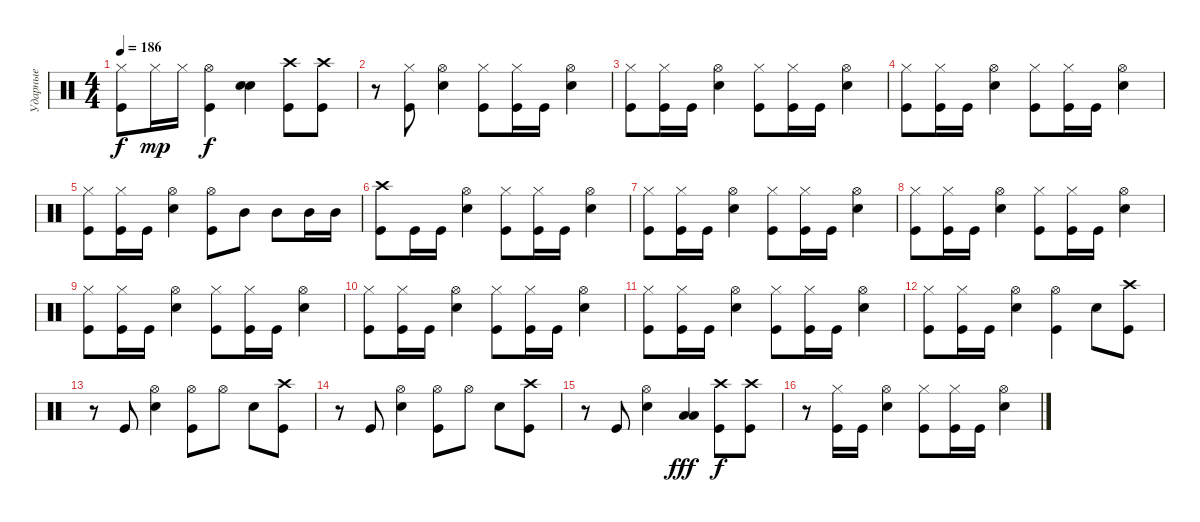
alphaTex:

\track ("Ударные" "Ударные") {instrument percussion}
\staff {score}
\articulation defaults
\ts (4 4)
\tempo 186
\clef neutral
\ks aminor
("Hi-Hat (closed)" "Kick (hit)").8{dy f} "Hi-Hat (closed)".16{dy mp} "Hi-Hat (closed)".16 ("Kick (hit)" "Hi-Hat (open)").4{dy f} ("Snare (hit) 2" "Snare (hit) 2").4{bd 480} ("Kick (hit)" "Crash high (hit)").8 ("Kick (hit)" "Crash high (hit)").8 |
r.8 ("Kick (hit)" "Hi-Hat (closed)").8 ("Snare (hit) 2" "Hi-Hat (open)").4 ("Kick (hit)" "Hi-Hat (closed)").8 ("Kick (hit)" "Hi-Hat (closed)").16 "Kick (hit)".16 ("Snare (hit) 2" "Hi-Hat (open)").4 |
("Kick (hit)" "Hi-Hat (closed)").8 ("Kick (hit)" "Hi-Hat (closed)").16 "Kick (hit)".16 ("Snare (hit) 2" "Hi-Hat (open)").4 ("Kick (hit)" "Hi-Hat (closed)").8 ("Kick (hit)" "Hi-Hat (closed)").16 "Kick (hit)".16 ("Snare (hit) 2" "Hi-Hat (open)").4 |
("Kick (hit)" "Hi-Hat (closed)").8 ("Kick (hit)" "Hi-Hat (closed)").16 "Kick (hit)".16 ("Snare (hit) 2" "Hi-Hat (open)").4 ("Kick (hit)" "Hi-Hat (closed)").8 ("Kick (hit)" "Hi-Hat (closed)").16 "Kick (hit)".16 ("Snare (hit) 2" "Hi-Hat (open)").4 |
("Kick (hit)" "Hi-Hat (closed)").8 ("Kick (hit)" "Hi-Hat (closed)").16 "Kick (hit)".16 ("Snare (hit) 2" "Hi-Hat (open)").4 ("Kick (hit)" "Hi-Hat (open)").8 "Mid Tom (hit)".8 "Mid Tom (hit)".8 "Mid Tom (hit)".16 "Mid Tom (hit)".16 |
("Kick (hit)" "Crash high (hit)").8 "Kick (hit)".16 "Kick (hit)".16 ("Snare (hit) 2" "Hi-Hat (open)").4 ("Kick (hit)" "Hi-Hat (closed)").8 ("Kick (hit)" "Hi-Hat (closed)").16 "Kick (hit)".16 ("Snare (hit) 2" "Hi-Hat (open)").4 |
("Kick (hit)" "Hi-Hat (closed)").8 ("Kick (hit)" "Hi-Hat (closed)").16 "Kick (hit)".16 ("Snare (hit) 2" "Hi-Hat (open)").4 ("Kick (hit)" "Hi-Hat (closed)").8 ("Kick (hit)" "Hi-Hat (closed)").16 "Kick (hit)".16 ("Snare (hit) 2" "Hi-Hat (open)").4 |
("Kick (hit)" "Hi-Hat (closed)").8 ("Kick (hit)" "Hi-Hat (closed)").16 "Kick (hit)".16 ("Snare (hit) 2" "Hi-Hat (open)").4 ("Kick (hit)" "Hi-Hat (closed)").8 ("Kick (hit)" "Hi-Hat (closed)").16 "Kick (hit)".16 ("Snare (hit) 2" "Hi-Hat (open)").4 |
("Kick (hit)" "Hi-Hat (closed)").8 ("Kick (hit)" "Hi-Hat (closed)").16 "Kick (hit)".16 ("Snare (hit) 2" "Hi-Hat (open)").4 ("Kick (hit)" "Hi-Hat (closed)").8 ("Kick (hit)" "Hi-Hat (closed)").16 "Kick (hit)".16 ("Snare (hit) 2" "Hi-Hat (open)").4 |
("Kick (hit)" "Hi-Hat (closed)").8 ("Kick (hit)" "Hi-Hat (closed)").16 "Kick (hit)".16 ("Snare (hit) 2" "Hi-Hat (open)").4 ("Kick (hit)" "Hi-Hat (closed)").8 ("Kick (hit)" "Hi-Hat (closed)").16 "Kick (hit)".16 ("Snare (hit) 2" "Hi-Hat (open)").4 |
("Kick (hit)" "Hi-Hat (closed)").8 ("Kick (hit)" "Hi-Hat (closed)").16 "Kick (hit)".16 ("Snare (hit) 2" "Hi-Hat (open)").4 ("Kick (hit)" "Hi-Hat (closed)").8 ("Kick (hit)" "Hi-Hat (closed)").16 "Kick (hit)".16 ("Snare (hit) 2" "Hi-Hat (open)").4 |
("Kick (hit)" "Hi-Hat (closed)").8 ("Kick (hit)" "Hi-Hat (closed)").16 "Kick (hit)".16 ("Snare (hit) 2" "Hi-Hat (open)").4 ("Kick (hit)" "Hi-Hat (open)").4 "Snare (hit) 2".8 ("Kick (hit)" "Crash high (hit)").8 |
r.8 "Kick (hit)".8 ("Snare (hit) 2" "Hi-Hat (open)").4 ("Kick (hit)" "Hi-Hat (open)").8 "Hi-Hat (open)".8 "Snare (hit) 2".8 ("Kick (hit)" "Crash high (hit)").8 |
r.8 "Kick (hit)".8 ("Snare (hit) 2" "Hi-Hat (open)").4 ("Kick (hit)" "Hi-Hat (open)").8 "Hi-Hat (open)".8 "Snare (hit) 2".8 ("Kick (hit)" "Crash high (hit)").8 |
r.8 "Kick (hit)".8 ("Snare (hit) 2" "Hi-Hat (open)").4 ("Low Tom (hit)" "Low Tom (hit)").4{bd 480 dy fff} ("Kick (hit)" "Crash high (hit)").8{dy f} ("Kick (hit)" "Crash high (hit)").8 |
r.8 ("Kick (hit)" "Hi-Hat (closed)").16 "Kick (hit)".16 ("Snare (hit) 2" "Hi-Hat (open)").4 ("Kick (hit)" "Hi-Hat (closed)").8 ("Kick (hit)" "Hi-Hat (closed)").16 "Kick (hit)".16 ("Snare (hit) 2" "Hi-Hat (open)").4
